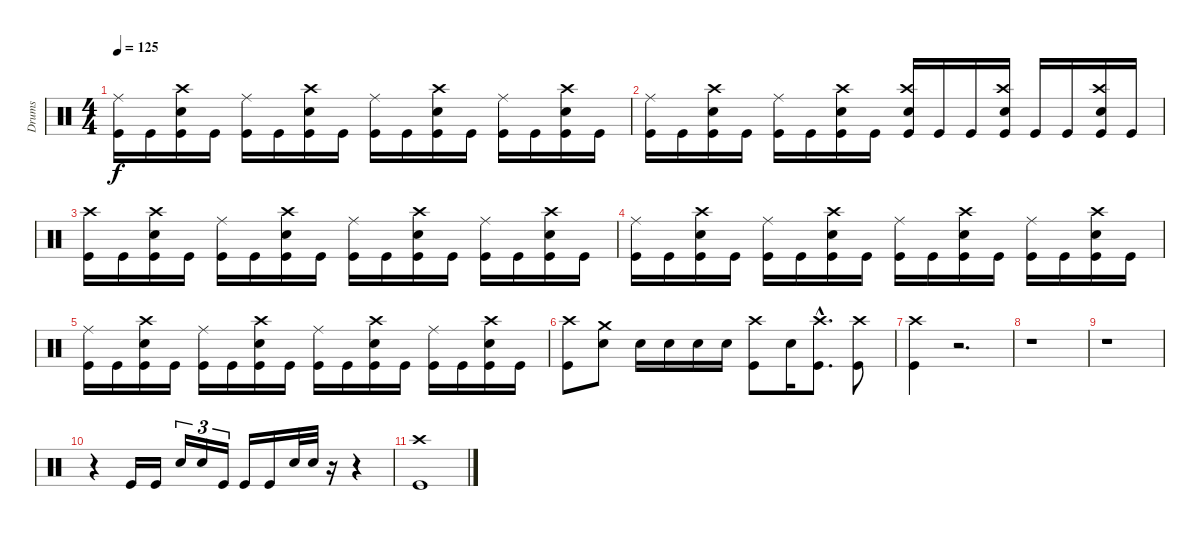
\track ("Drums" "Drums") {instrument percussion}
\staff {score}
\articulation defaults
\ts (4 4)
\tempo 125
\clef neutral
\ks c
("Ride (middle)" "Kick (hit)").16{dy f} "Kick (hit)".16 ("Crash high (hit)" "Snare (hit) 2" "Kick (hit)").16 "Kick (hit)".16 ("Ride (middle)" "Kick (hit)").16 "Kick (hit)".16 ("Crash high (hit)" "Snare (hit) 2" "Kick (hit)").16 "Kick (hit)".16 ("Ride (middle)" "Kick (hit)").16 "Kick (hit)".16 ("Crash high (hit)" "Snare (hit) 2" "Kick (hit)").16 "Kick (hit)".16 ("Ride (middle)" "Kick (hit)").16 "Kick (hit)".16 ("Crash high (hit)" "Snare (hit) 2" "Kick (hit)").16 "Kick (hit)".16 |
("Ride (middle)" "Kick (hit)").16 "Kick (hit)".16 ("Crash high (hit)" "Snare (hit) 2" "Kick (hit)").16 "Kick (hit)".16 ("Ride (middle)" "Kick (hit)").16 "Kick (hit)".16 ("Crash high (hit)" "Snare (hit) 2" "Kick (hit)").16 "Kick (hit)".16 ("Crash high (hit)" "Snare (hit) 2" "Kick (hit)").16 "Kick (hit)".16 "Kick (hit)".16 ("Crash high (hit)" "Snare (hit) 2" "Kick (hit)").16 "Kick (hit)".16 "Kick (hit)".16 ("Crash high (hit)" "Snare (hit) 2" "Kick (hit)").16 "Kick (hit)".16 |
("Crash high (hit)" "Kick (hit)").16 "Kick (hit)".16 ("Crash high (hit)" "Snare (hit) 2" "Kick (hit)").16 "Kick (hit)".16 ("Ride (middle)" "Kick (hit)").16 "Kick (hit)".16 ("Crash high (hit)" "Snare (hit) 2" "Kick (hit)").16 "Kick (hit)".16 ("Ride (middle)" "Kick (hit)").16 "Kick (hit)".16 ("Crash high (hit)" "Snare (hit) 2" "Kick (hit)").16 "Kick (hit)".16 ("Ride (middle)" "Kick (hit)").16 "Kick (hit)".16 ("Crash high (hit)" "Snare (hit) 2" "Kick (hit)").16 "Kick (hit)".16 |
("Ride (middle)" "Kick (hit)").16 "Kick (hit)".16 ("Crash high (hit)" "Snare (hit) 2" "Kick (hit)").16 "Kick (hit)".16 ("Ride (middle)" "Kick (hit)").16 "Kick (hit)".16 ("Crash high (hit)" "Snare (hit) 2" "Kick (hit)").16 "Kick (hit)".16 ("Ride (middle)" "Kick (hit)").16 "Kick (hit)".16 ("Crash high (hit)" "Snare (hit) 2" "Kick (hit)").16 "Kick (hit)".16 ("Ride (middle)" "Kick (hit)").16 "Kick (hit)".16 ("Crash high (hit)" "Snare (hit) 2" "Kick (hit)").16 "Kick (hit)".16 |
("Ride (middle)" "Kick (hit)").16 "Kick (hit)".16 ("Crash high (hit)" "Snare (hit) 2" "Kick (hit)").16 "Kick (hit)".16 ("Ride (middle)" "Kick (hit)").16 "Kick (hit)".16 ("Crash high (hit)" "Snare (hit) 2" "Kick (hit)").16 "Kick (hit)".16 ("Ride (middle)" "Kick (hit)").16 "Kick (hit)".16 ("Crash high (hit)" "Snare (hit) 2" "Kick (hit)").16 "Kick (hit)".16 ("Ride (middle)" "Kick (hit)").16 "Kick (hit)".16 ("Crash high (hit)" "Snare (hit) 2" "Kick (hit)").16 "Kick (hit)".16 |
("Crash high (hit)" "Kick (hit)").8 ("Crash medium (hit)" "Snare (hit) 2").8 "Snare (hit) 2".16 "Snare (hit) 2".16 "Snare (hit) 2".16 "Snare (hit) 2".16 ("Crash high (hit)" "Kick (hit)").8 "Snare (hit) 2".16 ("Crash high (hit)"{hac} "Kick (hit)"{hac}).8{d} ("Crash high (hit)" "Kick (hit)").8 |
("Crash high (hit)" "Kick (hit)").4 r.2{d} |
r.1 |
r.1 |
r.4 "Kick (hit)".16 "Kick (hit)".16 "Snare (hit) 2".16{tu (3 2)} "Snare (hit) 2".16{tu (3 2)} "Kick (hit)".16{tu (3 2)} "Kick (hit)".16 "Kick (hit)".16 "Snare (hit) 2".32 "Snare (hit) 2".32 r.16 r.4 |
("Crash high (hit)" "Kick (hit)").1
